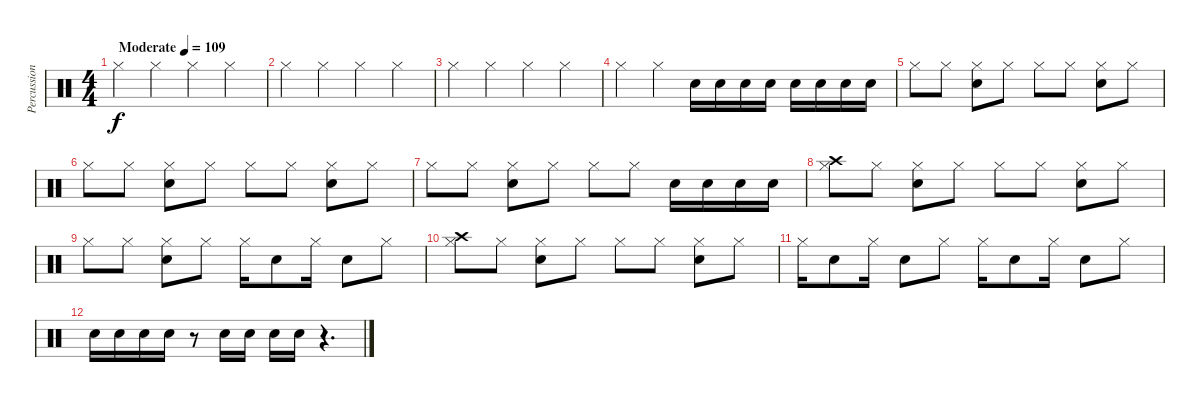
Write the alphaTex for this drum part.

\track ("Percussion" "Percussion") {instrument percussion}
\staff {score}
\articulation defaults
\ts (4 4)
\tempo (109 "Moderate")
\clef neutral
\ks c "Hi-Hat (closed)".4{dy f} "Hi-Hat (closed)".4 "Hi-Hat (closed)".4 "Hi-Hat (closed)".4
|
"Hi-Hat (closed)".4 "Hi-Hat (closed)".4 "Hi-Hat (closed)".4 "Hi-Hat (closed)".4 |
"Hi-Hat (closed)".4 "Hi-Hat (closed)".4 "Hi-Hat (closed)".4 "Hi-Hat (closed)".4 |
"Hi-Hat (closed)".4 "Hi-Hat (closed)".4 "Electric Snare (hit)".16 "Electric Snare (hit)".16 "Electric Snare (hit)".16 "Electric Snare (hit)".16 "Electric Snare (hit)".16 "Electric Snare (hit)".16 "Electric Snare (hit)".16 "Electric Snare (hit)".16 |
"Hi-Hat (closed)".8 "Hi-Hat (closed)".8 ("Hi-Hat (closed)" "Electric Snare (hit)").8 "Hi-Hat (closed)".8 "Hi-Hat (closed)".8 "Hi-Hat (closed)".8 ("Hi-Hat (closed)" "Electric Snare (hit)").8 "Hi-Hat (closed)".8 |
"Hi-Hat (closed)".8 "Hi-Hat (closed)".8 ("Hi-Hat (closed)" "Electric Snare (hit)").8 "Hi-Hat (closed)".8 "Hi-Hat (closed)".8 "Hi-Hat (closed)".8 ("Hi-Hat (closed)" "Electric Snare (hit)").8 "Hi-Hat (closed)".8 |
"Hi-Hat (closed)".8 "Hi-Hat (closed)".8 ("Hi-Hat (closed)" "Electric Snare (hit)").8 "Hi-Hat (closed)".8 "Hi-Hat (closed)".8 "Hi-Hat (closed)".8 "Electric Snare (hit)".16 "Electric Snare (hit)".16 "Electric Snare (hit)".16 "Electric Snare (hit)".16 |
("Hi-Hat (closed)" "Crash high (hit)").8 "Hi-Hat (closed)".8 ("Hi-Hat (closed)" "Electric Snare (hit)").8 "Hi-Hat (closed)".8 "Hi-Hat (closed)".8 "Hi-Hat (closed)".8 ("Hi-Hat (closed)" "Electric Snare (hit)").8 "Hi-Hat (closed)".8 |
"Hi-Hat (closed)".8 "Hi-Hat (closed)".8 ("Hi-Hat (closed)" "Electric Snare (hit)").8 "Hi-Hat (closed)".8 "Hi-Hat (closed)".16 "Electric Snare (hit)".8 "Hi-Hat (closed)".16 "Electric Snare (hit)".8 "Hi-Hat (closed)".8 |
("Hi-Hat (closed)" "Crash high (hit)").8 "Hi-Hat (closed)".8 ("Hi-Hat (closed)" "Electric Snare (hit)").8 "Hi-Hat (closed)".8 "Hi-Hat (closed)".8 "Hi-Hat (closed)".8 ("Hi-Hat (closed)" "Electric Snare (hit)").8 "Hi-Hat (closed)".8 |
"Hi-Hat (closed)".16 "Electric Snare (hit)".8 "Hi-Hat (closed)".16 "Electric Snare (hit)".8 "Hi-Hat (closed)".8 "Hi-Hat (closed)".16 "Electric Snare (hit)".8 "Hi-Hat (closed)".16 "Electric Snare (hit)".8 "Hi-Hat (closed)".8 |
"Electric Snare (hit)".16 "Electric Snare (hit)".16 "Electric Snare (hit)".16 "Electric Snare (hit)".16 r.8 "Electric Snare (hit)".16 "Electric Snare (hit)".16 "Electric Snare (hit)".16 "Electric Snare (hit)".16 r.4{d}
